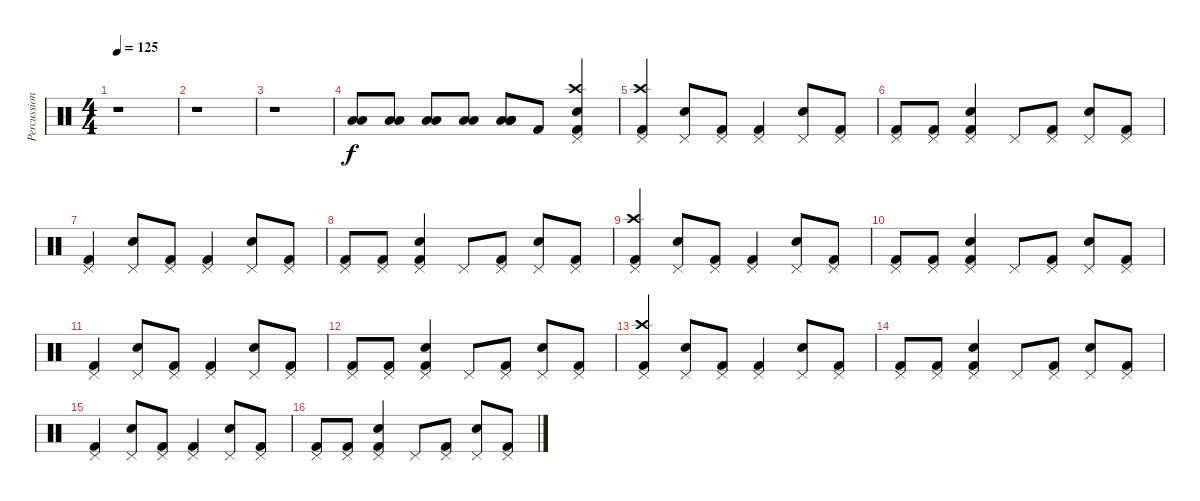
\track ("Percussion" "Percussion") {instrument percussion}
\staff {score}
\articulation defaults
\ts (4 4)
\tempo 125
\clef neutral
\ks c
r.1{dy f} |
r.1 |
r.1 |
("Low Tom (hit)" "Low Tom (hit)").8 ("Low Tom (hit)" "Low Tom (hit)").8 ("Low Tom (hit)" "Low Tom (hit)").8 ("Low Tom (hit)" "Low Tom (hit)").8 ("Low Tom (hit)" "Low Tom (hit)" "Low Tom (hit)" "Low Tom (hit)").8 "Kick (hit) 2".8 ("Kick (hit) 2" "Crash high (hit)" "Snare (hit) 2" "Pedal Hi-Hat (hit)").4 |
("Pedal Hi-Hat (hit)" "Kick (hit) 2" "Crash high (hit)").4 ("Pedal Hi-Hat (hit)" "Snare (hit) 2").8 ("Pedal Hi-Hat (hit)" "Kick (hit) 2").8 ("Pedal Hi-Hat (hit)" "Kick (hit) 2").4 ("Pedal Hi-Hat (hit)" "Snare (hit) 2").8 ("Pedal Hi-Hat (hit)" "Kick (hit) 2").8 |
("Pedal Hi-Hat (hit)" "Kick (hit) 2").8 ("Pedal Hi-Hat (hit)" "Kick (hit) 2").8 ("Pedal Hi-Hat (hit)" "Kick (hit) 2" "Snare (hit) 2").4 "Pedal Hi-Hat (hit)".8 ("Pedal Hi-Hat (hit)" "Kick (hit) 2").8 ("Pedal Hi-Hat (hit)" "Snare (hit) 2").8 ("Pedal Hi-Hat (hit)" "Kick (hit) 2").8 |
("Pedal Hi-Hat (hit)" "Kick (hit) 2").4 ("Pedal Hi-Hat (hit)" "Snare (hit) 2").8 ("Pedal Hi-Hat (hit)" "Kick (hit) 2").8 ("Pedal Hi-Hat (hit)" "Kick (hit) 2").4 ("Pedal Hi-Hat (hit)" "Snare (hit) 2").8 ("Pedal Hi-Hat (hit)" "Kick (hit) 2").8 |
("Pedal Hi-Hat (hit)" "Kick (hit) 2").8 ("Pedal Hi-Hat (hit)" "Kick (hit) 2").8 ("Pedal Hi-Hat (hit)" "Kick (hit) 2" "Snare (hit) 2").4 "Pedal Hi-Hat (hit)".8 ("Pedal Hi-Hat (hit)" "Kick (hit) 2").8 ("Pedal Hi-Hat (hit)" "Snare (hit) 2").8 ("Pedal Hi-Hat (hit)" "Kick (hit) 2").8 |
("Pedal Hi-Hat (hit)" "Kick (hit) 2" "Crash high (hit)").4 ("Pedal Hi-Hat (hit)" "Snare (hit) 2").8 ("Pedal Hi-Hat (hit)" "Kick (hit) 2").8 ("Pedal Hi-Hat (hit)" "Kick (hit) 2").4 ("Pedal Hi-Hat (hit)" "Snare (hit) 2").8 ("Pedal Hi-Hat (hit)" "Kick (hit) 2").8 |
("Pedal Hi-Hat (hit)" "Kick (hit) 2").8 ("Pedal Hi-Hat (hit)" "Kick (hit) 2").8 ("Pedal Hi-Hat (hit)" "Kick (hit) 2" "Snare (hit) 2").4 "Pedal Hi-Hat (hit)".8 ("Pedal Hi-Hat (hit)" "Kick (hit) 2").8 ("Pedal Hi-Hat (hit)" "Snare (hit) 2").8 ("Pedal Hi-Hat (hit)" "Kick (hit) 2").8 |
("Pedal Hi-Hat (hit)" "Kick (hit) 2").4 ("Pedal Hi-Hat (hit)" "Snare (hit) 2").8 ("Pedal Hi-Hat (hit)" "Kick (hit) 2").8 ("Pedal Hi-Hat (hit)" "Kick (hit) 2").4 ("Pedal Hi-Hat (hit)" "Snare (hit) 2").8 ("Pedal Hi-Hat (hit)" "Kick (hit) 2").8 |
("Pedal Hi-Hat (hit)" "Kick (hit) 2").8 ("Pedal Hi-Hat (hit)" "Kick (hit) 2").8 ("Pedal Hi-Hat (hit)" "Kick (hit) 2" "Snare (hit) 2").4 "Pedal Hi-Hat (hit)".8 ("Pedal Hi-Hat (hit)" "Kick (hit) 2").8 ("Pedal Hi-Hat (hit)" "Snare (hit) 2").8 ("Pedal Hi-Hat (hit)" "Kick (hit) 2").8 |
("Pedal Hi-Hat (hit)" "Kick (hit) 2" "Crash high (hit)").4 ("Pedal Hi-Hat (hit)" "Snare (hit) 2").8 ("Pedal Hi-Hat (hit)" "Kick (hit) 2").8 ("Pedal Hi-Hat (hit)" "Kick (hit) 2").4 ("Pedal Hi-Hat (hit)" "Snare (hit) 2").8 ("Pedal Hi-Hat (hit)" "Kick (hit) 2").8 |
("Pedal Hi-Hat (hit)" "Kick (hit) 2").8 ("Pedal Hi-Hat (hit)" "Kick (hit) 2").8 ("Pedal Hi-Hat (hit)" "Kick (hit) 2" "Snare (hit) 2").4 "Pedal Hi-Hat (hit)".8 ("Pedal Hi-Hat (hit)" "Kick (hit) 2").8 ("Pedal Hi-Hat (hit)" "Snare (hit) 2").8 ("Pedal Hi-Hat (hit)" "Kick (hit) 2").8 |
("Pedal Hi-Hat (hit)" "Kick (hit) 2").4 ("Pedal Hi-Hat (hit)" "Snare (hit) 2").8 ("Pedal Hi-Hat (hit)" "Kick (hit) 2").8 ("Pedal Hi-Hat (hit)" "Kick (hit) 2").4 ("Pedal Hi-Hat (hit)" "Snare (hit) 2").8 ("Pedal Hi-Hat (hit)" "Kick (hit) 2").8 |
("Pedal Hi-Hat (hit)" "Kick (hit) 2").8 ("Pedal Hi-Hat (hit)" "Kick (hit) 2").8 ("Pedal Hi-Hat (hit)" "Kick (hit) 2" "Snare (hit) 2").4 "Pedal Hi-Hat (hit)".8 ("Pedal Hi-Hat (hit)" "Kick (hit) 2").8 ("Pedal Hi-Hat (hit)" "Snare (hit) 2").8 ("Pedal Hi-Hat (hit)" "Kick (hit) 2").8
